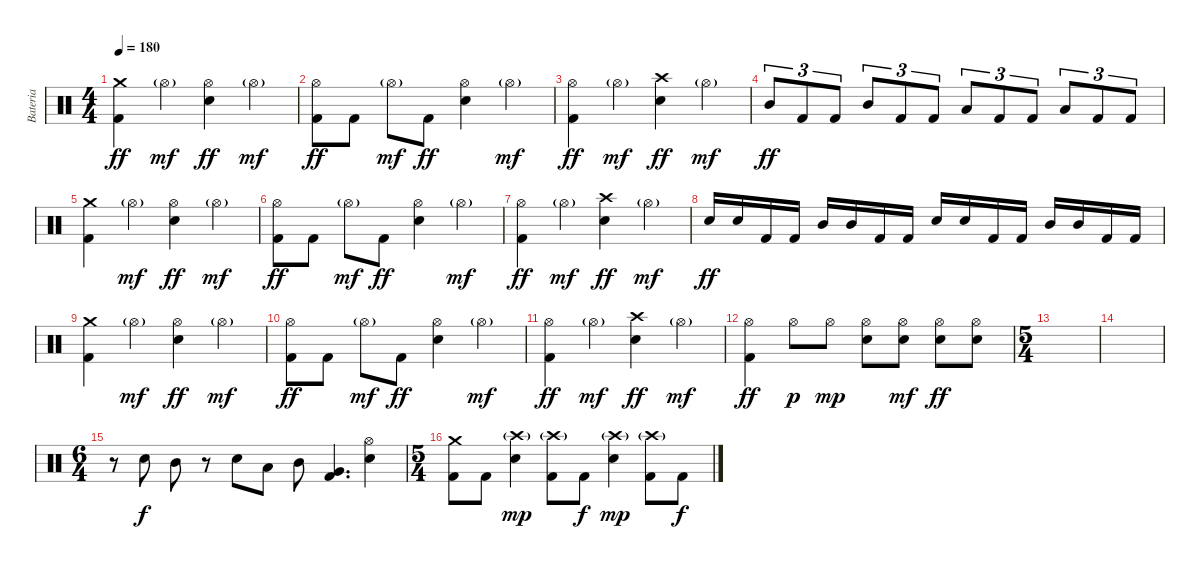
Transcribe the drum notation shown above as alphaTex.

\track ("Bateria" "Bateria") {instrument percussion}
\staff {score}
\articulation defaults
\ts (4 4)
\tempo 180
\clef neutral
\ks c
("Crash medium (hit)" "Kick (hit) 2").4{dy ff} "Hi-Hat (open)"{g}.4{dy mf} ("Hi-Hat (open)" "Electric Snare (hit)").4{dy ff} "Hi-Hat (open)"{g}.4{dy mf} |
("Hi-Hat (open)" "Kick (hit) 2").8{dy ff} "Kick (hit) 2".8 "Hi-Hat (open)"{g}.8{dy mf} "Kick (hit) 2".8{dy ff} ("Hi-Hat (open)" "Electric Snare (hit)").4 "Hi-Hat (open)"{g}.4{dy mf} |
("Hi-Hat (open)" "Kick (hit) 2").4{dy ff} "Hi-Hat (open)"{g}.4{dy mf} ("Crash high (hit)" "Electric Snare (hit)").4{dy ff} "Hi-Hat (open)"{g}.4{dy mf} |
"Mid Tom (hit)".8{tu (3 2) dy ff} "Kick (hit) 2".8{tu (3 2)} "Kick (hit) 2".8{tu (3 2)} "Mid Tom (hit)".8{tu (3 2)} "Kick (hit) 2".8{tu (3 2)} "Kick (hit) 2".8{tu (3 2)} "Low Tom (hit)".8{tu (3 2)} "Kick (hit) 2".8{tu (3 2)} "Kick (hit) 2".8{tu (3 2)} "Low Tom (hit)".8{tu (3 2)} "Kick (hit) 2".8{tu (3 2)} "Kick (hit) 2".8{tu (3 2)} |
("Crash medium (hit)" "Kick (hit) 2").4 "Hi-Hat (open)"{g}.4{dy mf} ("Hi-Hat (open)" "Electric Snare (hit)").4{dy ff} "Hi-Hat (open)"{g}.4{dy mf} |
("Hi-Hat (open)" "Kick (hit) 2").8{dy ff} "Kick (hit) 2".8 "Hi-Hat (open)"{g}.8{dy mf} "Kick (hit) 2".8{dy ff} ("Hi-Hat (open)" "Electric Snare (hit)").4 "Hi-Hat (open)"{g}.4{dy mf} |
("Hi-Hat (open)" "Kick (hit) 2").4{dy ff} "Hi-Hat (open)"{g}.4{dy mf} ("Crash high (hit)" "Electric Snare (hit)").4{dy ff} "Hi-Hat (open)"{g}.4{dy mf} |
"Electric Snare (hit)".16{dy ff} "Electric Snare (hit)".16 "Kick (hit) 2".16 "Kick (hit) 2".16 "Mid Tom (hit)".16 "Mid Tom (hit)".16 "Kick (hit) 2".16 "Kick (hit) 2".16 "Electric Snare (hit)".16 "Electric Snare (hit)".16 "Kick (hit) 2".16 "Kick (hit) 2".16 "Mid Tom (hit)".16 "Mid Tom (hit)".16 "Kick (hit) 2".16 "Kick (hit) 2".16 |
("Crash medium (hit)" "Kick (hit) 2").4 "Hi-Hat (open)"{g}.4{dy mf} ("Hi-Hat (open)" "Electric Snare (hit)").4{dy ff} "Hi-Hat (open)"{g}.4{dy mf} |
("Hi-Hat (open)" "Kick (hit) 2").8{dy ff} "Kick (hit) 2".8 "Hi-Hat (open)"{g}.8{dy mf} "Kick (hit) 2".8{dy ff} ("Hi-Hat (open)" "Electric Snare (hit)").4 "Hi-Hat (open)"{g}.4{dy mf} |
("Hi-Hat (open)" "Kick (hit) 2").4{dy ff} "Hi-Hat (open)"{g}.4{dy mf} ("Crash high (hit)" "Electric Snare (hit)").4{dy ff} "Hi-Hat (open)"{g}.4{dy mf} |
("Hi-Hat (open)" "Kick (hit) 2").4{dy ff} "Hi-Hat (open)".8{dy p} "Hi-Hat (open)".8{dy mp} ("Hi-Hat (open)" "Electric Snare (hit)").8 ("Hi-Hat (open)" "Electric Snare (hit)").8{dy mf} ("Hi-Hat (open)" "Electric Snare (hit)").8{dy ff} ("Hi-Hat (open)" "Electric Snare (hit)").8 |
\ts (5 4)
|
|
\ts (6 4)
r.8 "Electric Snare (hit)".8{dy f} "Mid Tom (hit)".8 r.8 "Electric Snare (hit)".8 "Low Tom (hit)".8 "Mid Tom (hit)".8 ("Very Low Tom (hit)" "Kick (hit) 2").4{d} ("Hi-Hat (open)" "Electric Snare (hit)").4 |
\ts (5 4)
("Crash medium (hit)" "Kick (hit) 2").8 "Kick (hit) 2".8 ("Crash high (hit)"{g} "Electric Snare (hit)").4{dy mp} ("Crash high (hit)"{g} "Kick (hit) 2").8 "Kick (hit) 2".8{dy f} ("Crash high (hit)"{g} "Electric Snare (hit)").4{dy mp} ("Crash high (hit)"{g} "Kick (hit) 2").8 "Kick (hit) 2".8{dy f}
